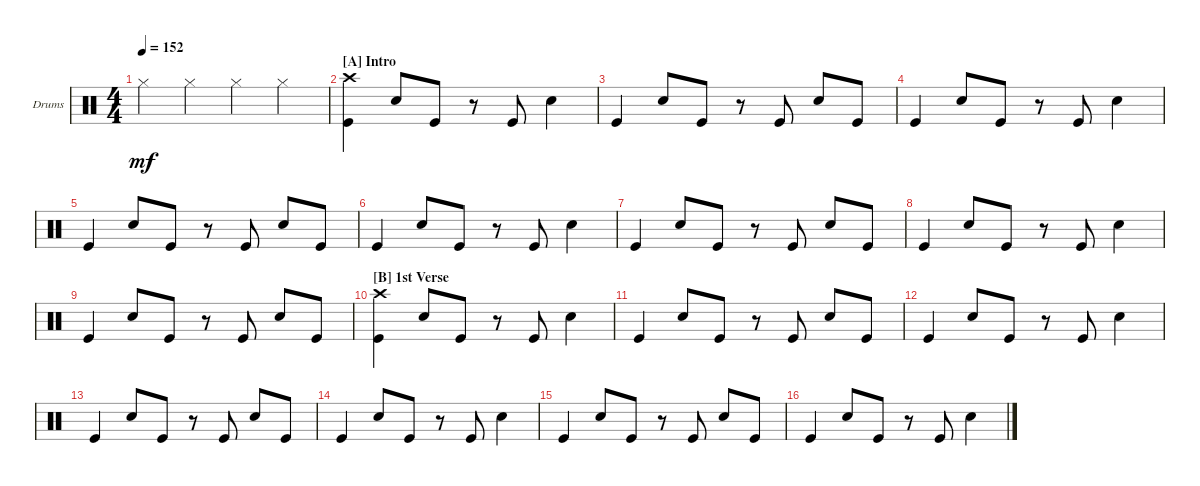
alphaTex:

\defaultSystemsLayout 4
\bracketExtendMode groupsimilarinstruments
\firstSystemTrackNameOrientation horizontal
\otherSystemsTrackNameOrientation horizontal
\track ("Drums" "Drums") {instrument percussion}
\staff {score}
\articulation defaults
\ts (4 4)
\tempo 152
\clef neutral
\ks c "Hi-Hat (closed)".4{dy mf} "Hi-Hat (closed)".4 "Hi-Hat (closed)".4 "Hi-Hat (closed)".4
|
\section ("A" "Intro")
("Kick (hit)" "Crash high (hit)").4 "Snare (hit) 2".8 "Kick (hit)".8 r.8 "Kick (hit)".8 "Snare (hit) 2".4 |
"Kick (hit)".4 "Snare (hit) 2".8 "Kick (hit)".8 r.8 "Kick (hit)".8 "Snare (hit) 2".8 "Kick (hit)".8 |
"Kick (hit)".4 "Snare (hit) 2".8 "Kick (hit)".8 r.8 "Kick (hit)".8 "Snare (hit) 2".4 |
"Kick (hit)".4 "Snare (hit) 2".8 "Kick (hit)".8 r.8 "Kick (hit)".8 "Snare (hit) 2".8 "Kick (hit)".8 |
"Kick (hit)".4 "Snare (hit) 2".8 "Kick (hit)".8 r.8 "Kick (hit)".8 "Snare (hit) 2".4 |
"Kick (hit)".4 "Snare (hit) 2".8 "Kick (hit)".8 r.8 "Kick (hit)".8 "Snare (hit) 2".8 "Kick (hit)".8 |
"Kick (hit)".4 "Snare (hit) 2".8 "Kick (hit)".8 r.8 "Kick (hit)".8 "Snare (hit) 2".4 |
"Kick (hit)".4 "Snare (hit) 2".8 "Kick (hit)".8 r.8 "Kick (hit)".8 "Snare (hit) 2".8 "Kick (hit)".8 |
\section ("B" "1st Verse")
("Kick (hit)" "Crash high (hit)").4 "Snare (hit) 2".8 "Kick (hit)".8 r.8 "Kick (hit)".8 "Snare (hit) 2".4 |
"Kick (hit)".4 "Snare (hit) 2".8 "Kick (hit)".8 r.8 "Kick (hit)".8 "Snare (hit) 2".8 "Kick (hit)".8 |
"Kick (hit)".4 "Snare (hit) 2".8 "Kick (hit)".8 r.8 "Kick (hit)".8 "Snare (hit) 2".4 |
"Kick (hit)".4 "Snare (hit) 2".8 "Kick (hit)".8 r.8 "Kick (hit)".8 "Snare (hit) 2".8 "Kick (hit)".8 |
"Kick (hit)".4 "Snare (hit) 2".8 "Kick (hit)".8 r.8 "Kick (hit)".8 "Snare (hit) 2".4 |
"Kick (hit)".4 "Snare (hit) 2".8 "Kick (hit)".8 r.8 "Kick (hit)".8 "Snare (hit) 2".8 "Kick (hit)".8 |
"Kick (hit)".4 "Snare (hit) 2".8 "Kick (hit)".8 r.8 "Kick (hit)".8 "Snare (hit) 2".4
